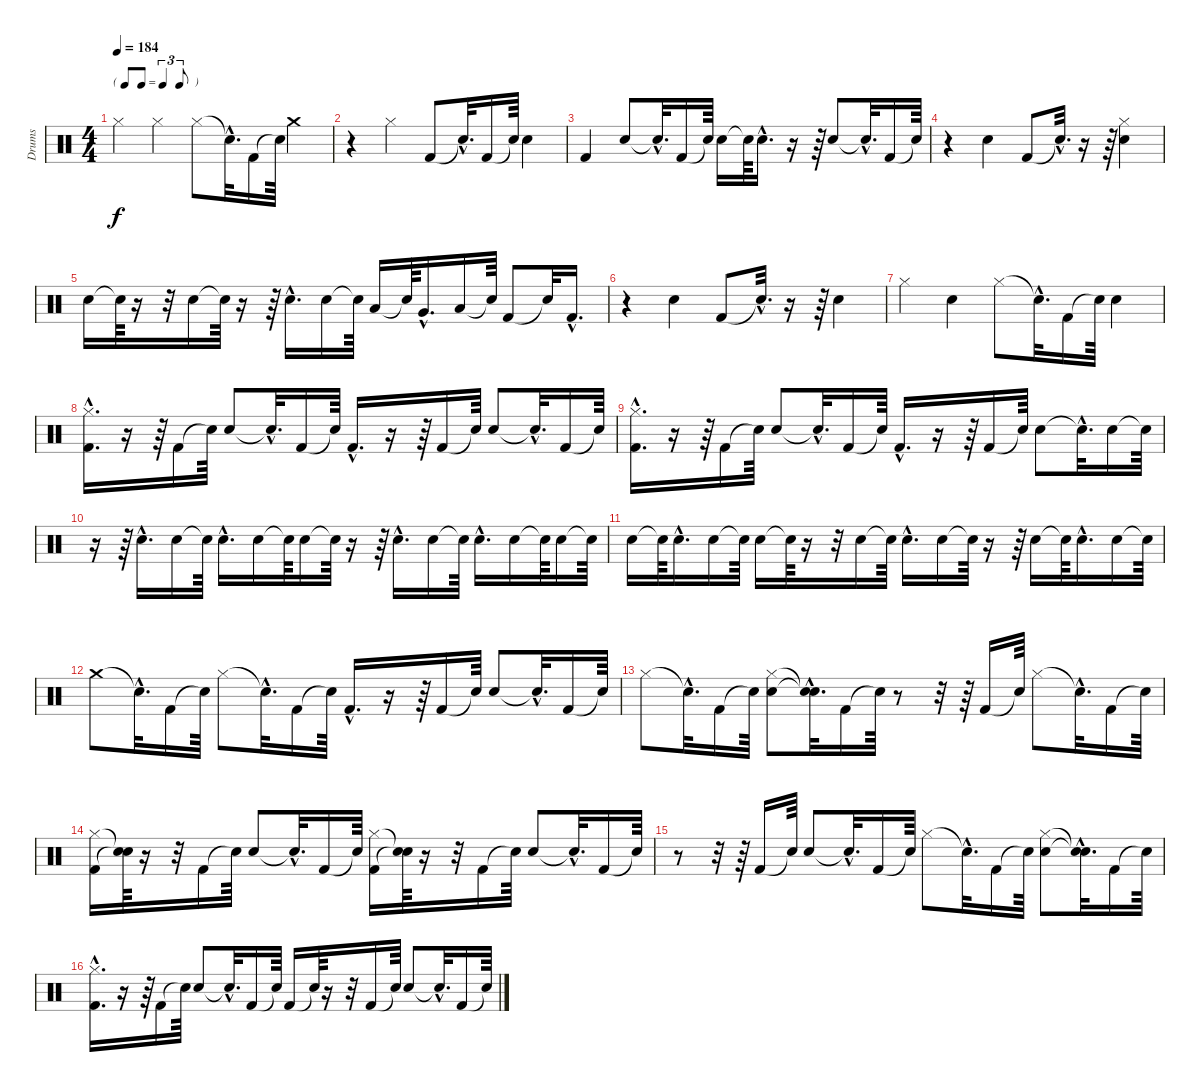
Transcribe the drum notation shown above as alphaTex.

\track ("Drums" "Drums") {instrument percussion}
\staff {score}
\articulation defaults
\ts (4 4)
\tf triplet8th
\tempo 184
\clef neutral
\ks c "Hi-Hat (closed)".4{dy f} "Hi-Hat (closed)".4 "Hi-Hat (closed)".8 "Snare (hit)"{hac t}.32{d} "Kick (hit) 2".16 "Snare (hit)"{t}.64 "Crash medium (hit)".4
|
r.4 "Hi-Hat (closed)".4 "Kick (hit) 2".8 "Snare (hit)"{hac t}.32{d} "Kick (hit) 2".16 "Snare (hit)"{t}.64 "Snare (hit) 2".4 |
"Kick (hit) 2".4 "Snare (hit) 2".8 "Snare (hit)"{hac t}.32{d} "Kick (hit) 2".16 "Snare (hit)"{t}.64 "Snare (hit) 2".16 "Snare (hit)"{t}.64 "Snare (hit) 2"{hac}.16{d} r.16 r.64 "Snare (hit) 2".8 "Snare (hit)"{hac t}.32{d} "Kick (hit) 2".16 "Snare (hit)"{t}.64 |
r.4 "Snare (hit) 2".4 "Kick (hit) 2".8 "Snare (hit)"{hac t}.32{d} r.16 r.64 ("Hi-Hat (closed)" "Snare (hit) 2").4 |
"Snare (hit) 2".16 "Snare (hit)"{t}.64 r.16 r.32 "Snare (hit) 2".16 "Snare (hit)"{t}.64 r.16 r.64 "Snare (hit) 2"{hac}.16{d} "Snare (hit) 2".16 "Snare (hit)"{t}.64 "Low Tom (hit)".16 "Snare (hit)"{t}.64 "Very Low Tom (hit)"{hac}.16{d} "Low Floor Tom (hit)".16 "Snare (hit)"{t}.64 "Kick (hit) 2".8 "Snare (hit)"{t}.32 "Kick (hit) 2"{hac}.16{d} |
r.4 "Snare (hit) 2".4 "Kick (hit) 2".8 "Snare (hit)"{hac t}.32{d} r.16 r.64 "Snare (hit) 2".4 |
"Hi-Hat (closed)".4 "Snare (hit) 2".4 "Hi-Hat (closed)".8 "Snare (hit)"{hac t}.32{d} "Kick (hit) 2".16 "Snare (hit)"{t}.64 "Snare (hit) 2".4 |
("Hi-Hat (closed)"{hac} "Kick (hit) 2"{hac}).16{d} r.16 r.64 "Kick (hit) 2".16 "Snare (hit)"{t}.64 "Snare (hit) 2".8 "Snare (hit)"{hac t}.32{d} "Kick (hit) 2".16 "Snare (hit)"{t}.64 "Kick (hit) 2"{hac}.16{d} r.16 r.64 "Kick (hit) 2".16 "Snare (hit)"{t}.64 "Snare (hit) 2".8 "Snare (hit)"{hac t}.32{d} "Kick (hit) 2".16 "Snare (hit)"{t}.64 |
("Hi-Hat (closed)"{hac} "Kick (hit) 2"{hac}).16{d} r.16 r.64 "Kick (hit) 2".16 "Snare (hit)"{t}.64 "Snare (hit) 2".8 "Snare (hit)"{hac t}.32{d} "Kick (hit) 2".16 "Snare (hit)"{t}.64 "Kick (hit) 2"{hac}.16{d} r.16 r.64 "Kick (hit) 2".16 "Snare (hit)"{t}.64 "Snare (hit) 2".8 "Snare (hit)"{hac t}.32{d} "Snare (hit) 2".16 "Snare (hit)"{t}.64 |
r.16 r.64 "Snare (hit) 2"{hac}.16{d} "Snare (hit) 2".16 "Snare (hit)"{t}.64 "Snare (hit) 2"{hac}.16{d} "Snare (hit) 2".16 "Snare (hit)"{t}.64 "Snare (hit) 2".16 "Snare (hit)"{t}.64 r.16 r.64 "Snare (hit) 2"{hac}.16{d} "Snare (hit) 2".16 "Snare (hit)"{t}.64 "Snare (hit) 2"{hac}.16{d} "Snare (hit) 2".16 "Snare (hit)"{t}.64 "Snare (hit) 2".16 "Snare (hit)"{t}.64 |
"Snare (hit) 2".16 "Snare (hit)"{t}.64 "Snare (hit) 2"{hac}.16{d} "Snare (hit) 2".16 "Snare (hit)"{t}.64 "Snare (hit) 2".16 "Snare (hit)"{t}.64 r.16 r.32 "Snare (hit) 2".16 "Snare (hit)"{t}.64 "Snare (hit) 2"{hac}.16{d} "Snare (hit) 2".16 "Snare (hit)"{t}.64 r.16 r.64 "Snare (hit) 2".16 "Snare (hit)"{t}.64 "Snare (hit) 2"{hac}.16{d} "Snare (hit) 2".16 "Snare (hit)"{t}.64 |
"Crash medium (hit)".8 "Snare (hit)"{hac t}.32{d} "Kick (hit) 2".16 "Snare (hit)"{t}.64 "Hi-Hat (closed)".8 "Snare (hit)"{hac t}.32{d} "Kick (hit) 2".16 "Snare (hit)"{t}.64 "Kick (hit) 2"{hac}.16{d} r.16 r.64 "Kick (hit) 2".16 "Snare (hit)"{t}.64 "Snare (hit) 2".8 "Snare (hit)"{hac t}.32{d} "Kick (hit) 2".16 "Snare (hit)"{t}.64 |
"Hi-Hat (closed)".8 "Snare (hit)"{hac t}.32{d} "Kick (hit) 2".16 "Snare (hit)"{t}.64 ("Hi-Hat (closed)" "Snare (hit) 2").8 ("Snare (hit)"{hac t} "Snare (hit)"{hac t}).32{d} "Kick (hit) 2".16 "Snare (hit)"{t}.64 r.8 r.32 r.64 "Kick (hit) 2".16 "Snare (hit)"{t}.64 "Hi-Hat (closed)".8 "Snare (hit)"{hac t}.32{d} "Kick (hit) 2".16 "Snare (hit)"{t}.64 |
("Hi-Hat (closed)" "Kick (hit) 2").16 ("Snare (hit)"{t} "Snare (hit)"{t}).64 r.16 r.32 "Kick (hit) 2".16 "Snare (hit)"{t}.64 "Snare (hit) 2".8 "Snare (hit)"{hac t}.32{d} "Kick (hit) 2".16 "Snare (hit)"{t}.64 ("Hi-Hat (closed)" "Kick (hit) 2").16 ("Snare (hit)"{t} "Snare (hit)"{t}).64 r.16 r.32 "Kick (hit) 2".16 "Snare (hit)"{t}.64 "Snare (hit) 2".8 "Snare (hit)"{hac t}.32{d} "Kick (hit) 2".16 "Snare (hit)"{t}.64 |
r.8 r.32 r.64 "Kick (hit) 2".16 "Snare (hit)"{t}.64 "Snare (hit) 2".8 "Snare (hit)"{hac t}.32{d} "Kick (hit) 2".16 "Snare (hit)"{t}.64 "Hi-Hat (closed)".8 "Snare (hit)"{hac t}.32{d} "Kick (hit) 2".16 "Snare (hit)"{t}.64 ("Hi-Hat (closed)" "Snare (hit) 2").8 ("Snare (hit)"{hac t} "Snare (hit)"{hac t}).32{d} "Kick (hit) 2".16 "Snare (hit)"{t}.64 |
("Hi-Hat (closed)"{hac} "Kick (hit) 2"{hac}).16{d} r.16 r.64 "Kick (hit) 2".16 "Snare (hit)"{t}.64 "Snare (hit) 2".8 "Snare (hit)"{hac t}.32{d} "Kick (hit) 2".16 "Snare (hit)"{t}.64 "Kick (hit) 2".16 "Snare (hit)"{t}.64 r.16 r.32 "Kick (hit) 2".16 "Snare (hit)"{t}.64 "Snare (hit) 2".8 "Snare (hit)"{hac t}.32{d} "Kick (hit) 2".16 "Snare (hit)"{t}.64
